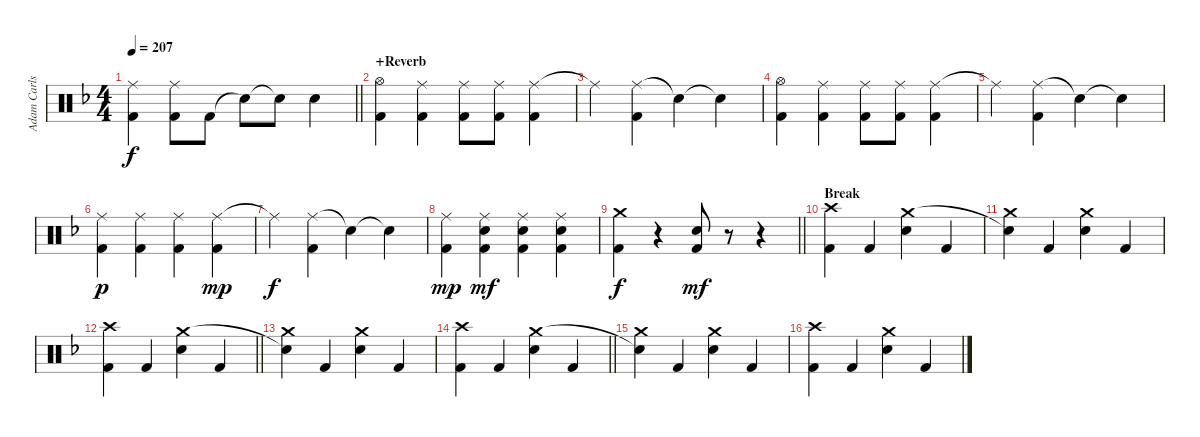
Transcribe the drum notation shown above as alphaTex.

\track ("Adam Carlson" "Adam Carls") {instrument percussion}
\staff {score}
\articulation defaults
\ts (4 4)
\tempo 207
\clef neutral
\barLineRight lightlight
\ks f
("Ride (middle)"{t} "Kick (hit) 2").4{dy f} ("Ride (middle)" "Kick (hit) 2").8 "Kick (hit) 2".8 "Snare (hit)"{t}.8 "Snare (hit)"{t}.8 "Electric Snare (hit)".4 |
\section ("" "+Reverb")
("Hi-Hat (open)" "Kick (hit) 2").4 ("Ride (middle)" "Kick (hit) 2").4 ("Ride (middle)" "Kick (hit) 2").8 ("Ride (middle)" "Kick (hit) 2").8 ("Ride (middle)" "Kick (hit) 2").4 |
"Ride (middle)"{t}.4 ("Ride (middle)" "Kick (hit) 2").4 "Snare (hit)"{t}.4 "Snare (hit)"{t}.4 |
("Hi-Hat (open)" "Kick (hit) 2").4 ("Ride (middle)" "Kick (hit) 2").4 ("Ride (middle)" "Kick (hit) 2").8 ("Ride (middle)" "Kick (hit) 2").8 ("Ride (middle)" "Kick (hit) 2").4 |
"Ride (middle)"{t}.4 ("Ride (middle)" "Kick (hit) 2").4 "Snare (hit)"{t}.4 "Snare (hit)"{t}.4 |
("Ride (middle)" "Kick (hit) 2").4{dy p} ("Ride (middle)" "Kick (hit) 2").4 ("Ride (middle)" "Kick (hit) 2").4 ("Ride (middle)" "Kick (hit) 2").4{dy mp} |
"Ride (middle)"{t}.4{dy f} ("Ride (middle)" "Kick (hit) 2").4 "Snare (hit)"{t}.4 "Snare (hit)"{t}.4 |
("Ride (middle)" "Kick (hit) 2").4{dy mp} ("Ride (middle)" "Electric Snare (hit)" "Kick (hit) 2").4{dy mf} ("Ride (middle)" "Electric Snare (hit)" "Kick (hit) 2").4 ("Ride (middle)" "Electric Snare (hit)" "Kick (hit) 2").4 |
\barLineRight lightlight
("Crash medium (hit)" "Kick (hit) 2").4{dy f} r.4 ("Electric Snare (hit)" "Kick (hit) 2").8{dy mf} r.8 r.4 |
\section ("" "Break")
("Crash high (hit)" "Kick (hit) 2").4 "Kick (hit) 2".4 ("Electric Snare (hit)" "Crash medium (hit)").4 "Kick (hit) 2".4 |
("Crash medium (hit)" "Snare (hit)"{t}).4 "Kick (hit) 2".4 ("Electric Snare (hit)" "Crash medium (hit)").4 "Kick (hit) 2".4 |
\barLineRight lightlight
("Crash high (hit)" "Kick (hit) 2").4 "Kick (hit) 2".4 ("Electric Snare (hit)" "Crash medium (hit)").4 "Kick (hit) 2".4 |
("Crash medium (hit)" "Snare (hit)"{t}).4 "Kick (hit) 2".4 ("Electric Snare (hit)" "Crash medium (hit)").4 "Kick (hit) 2".4 |
\barLineRight lightlight
("Crash high (hit)" "Kick (hit) 2").4 "Kick (hit) 2".4 ("Electric Snare (hit)" "Crash medium (hit)").4 "Kick (hit) 2".4 |
("Crash medium (hit)" "Snare (hit)"{t}).4 "Kick (hit) 2".4 ("Electric Snare (hit)" "Crash medium (hit)").4 "Kick (hit) 2".4 |
("Crash high (hit)" "Kick (hit) 2").4 "Kick (hit) 2".4 ("Electric Snare (hit)" "Crash medium (hit)").4 "Kick (hit) 2".4
